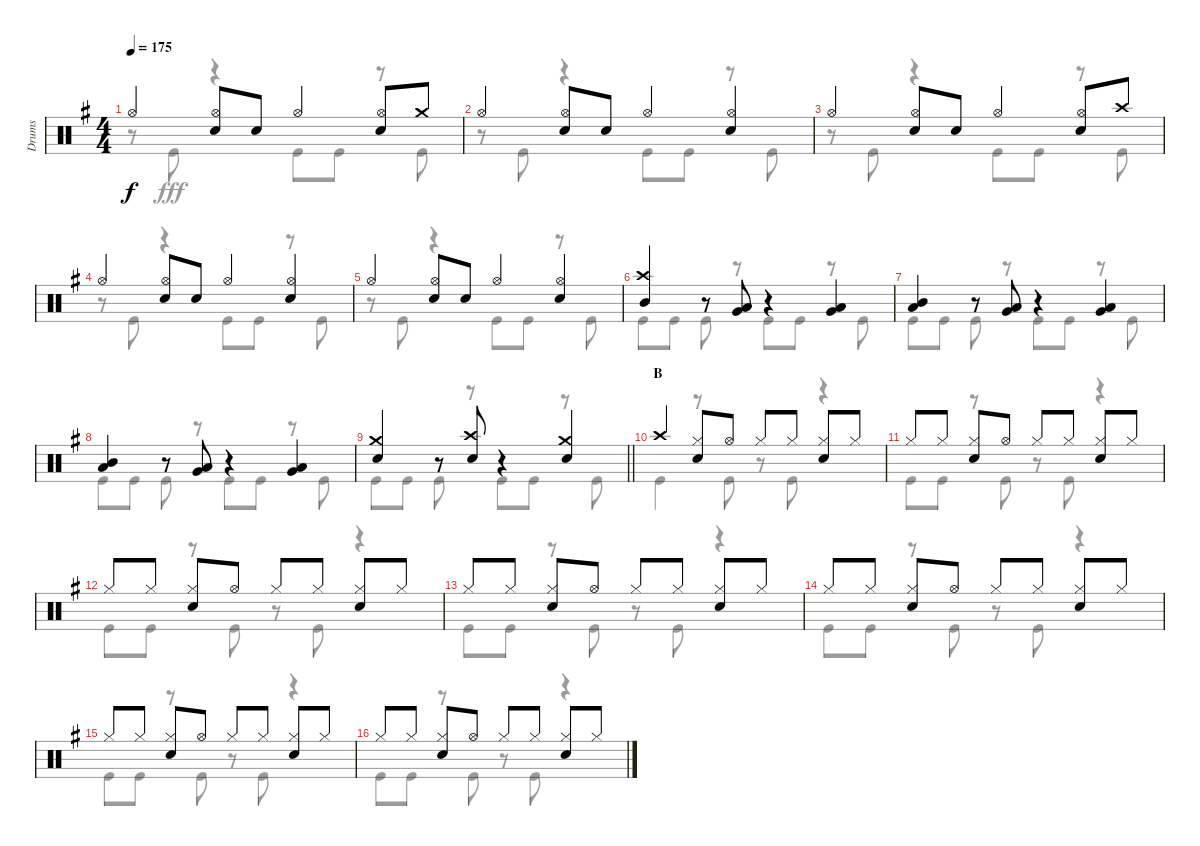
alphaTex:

\track ("Drums" "Drums") {instrument percussion}
\staff {score}
\articulation defaults
\voice
\ts (4 4)
\tempo 175
\clef neutral
\ks g "Hi-Hat (open)".4{dy f}
("Hi-Hat (open)" "Snare (hit) 2").8 "Snare (hit) 2".8 "Hi-Hat (open)".4 ("Hi-Hat (open)" "Snare (hit) 2").8 "Crash medium (hit)".8 |
"Hi-Hat (open)".4 ("Hi-Hat (open)" "Snare (hit) 2").8 "Snare (hit) 2".8 "Hi-Hat (open)".4 ("Hi-Hat (open)" "Snare (hit) 2").4 |
"Hi-Hat (open)".4 ("Hi-Hat (open)" "Snare (hit) 2").8 "Snare (hit) 2".8 "Hi-Hat (open)".4 ("Hi-Hat (open)" "Snare (hit) 2").8 "Crash high (hit)".8 |
"Hi-Hat (open)".4 ("Hi-Hat (open)" "Snare (hit) 2").8 "Snare (hit) 2".8 "Hi-Hat (open)".4 ("Hi-Hat (open)" "Snare (hit) 2").4 |
"Hi-Hat (open)".4 ("Hi-Hat (open)" "Snare (hit) 2").8 "Snare (hit) 2".8 "Hi-Hat (open)".4 ("Hi-Hat (open)" "Snare (hit) 2").4 |
("Crash high (hit)" "Mid Tom (hit)").4 r.8 ("Low Tom (hit)" "Very Low Tom (hit)").8 r.4 ("Low Tom (hit)" "Very Low Tom (hit)").4 |
("Mid Tom (hit)" "Low Tom (hit)").4 r.8 ("Low Tom (hit)" "Very Low Tom (hit)").8 r.4 ("Low Tom (hit)" "Very Low Tom (hit)").4 |
("Mid Tom (hit)" "Low Tom (hit)").4 r.8 ("Low Tom (hit)" "Very Low Tom (hit)").8 r.4 ("Low Tom (hit)" "Very Low Tom (hit)").4 |
\barLineRight lightlight
("Crash medium (hit)" "Snare (hit) 2").4 r.8 ("Crash high (hit)" "Snare (hit) 2").8 r.4 ("Crash medium (hit)" "Snare (hit) 2").4 |
\section ("" "B")
"Crash high (hit)".4 ("Hi-Hat (closed)" "Snare (hit) 2").8 "Hi-Hat (open)".8 "Hi-Hat (closed)".8 "Hi-Hat (closed)".8 ("Hi-Hat (closed)" "Snare (hit) 2").8 "Hi-Hat (closed)".8 |
"Hi-Hat (closed)".8 "Hi-Hat (closed)".8 ("Hi-Hat (closed)" "Snare (hit) 2").8 "Hi-Hat (open)".8 "Hi-Hat (closed)".8 "Hi-Hat (closed)".8 ("Hi-Hat (closed)" "Snare (hit) 2").8 "Hi-Hat (closed)".8 |
"Hi-Hat (closed)".8 "Hi-Hat (closed)".8 ("Hi-Hat (closed)" "Snare (hit) 2").8 "Hi-Hat (open)".8 "Hi-Hat (closed)".8 "Hi-Hat (closed)".8 ("Hi-Hat (closed)" "Snare (hit) 2").8 "Hi-Hat (closed)".8 |
"Hi-Hat (closed)".8 "Hi-Hat (closed)".8 ("Hi-Hat (closed)" "Snare (hit) 2").8 "Hi-Hat (open)".8 "Hi-Hat (closed)".8 "Hi-Hat (closed)".8 ("Hi-Hat (closed)" "Snare (hit) 2").8 "Hi-Hat (closed)".8 |
"Hi-Hat (closed)".8 "Hi-Hat (closed)".8 ("Hi-Hat (closed)" "Snare (hit) 2").8 "Hi-Hat (open)".8 "Hi-Hat (closed)".8 "Hi-Hat (closed)".8 ("Hi-Hat (closed)" "Snare (hit) 2").8 "Hi-Hat (closed)".8 |
"Hi-Hat (closed)".8 "Hi-Hat (closed)".8 ("Hi-Hat (closed)" "Snare (hit) 2").8 "Hi-Hat (open)".8 "Hi-Hat (closed)".8 "Hi-Hat (closed)".8 ("Hi-Hat (closed)" "Snare (hit) 2").8 "Hi-Hat (closed)".8 |
"Hi-Hat (closed)".8 "Hi-Hat (closed)".8 ("Hi-Hat (closed)" "Snare (hit) 2").8 "Hi-Hat (open)".8 "Hi-Hat (closed)".8 "Hi-Hat (closed)".8 ("Hi-Hat (closed)" "Snare (hit) 2").8 "Hi-Hat (closed)".8
\voice
\clef neutral
\ottava regular
\simile none
\ks g
r.8{dy fff} "Kick (hit)".8 r.4 "Kick (hit)".8 "Kick (hit)".8 r.8 "Kick (hit)".8 |
r.8 "Kick (hit)".8 r.4 "Kick (hit)".8 "Kick (hit)".8 r.8 "Kick (hit)".8 |
r.8 "Kick (hit)".8 r.4 "Kick (hit)".8 "Kick (hit)".8 r.8 "Kick (hit)".8 |
r.8 "Kick (hit)".8 r.4 "Kick (hit)".8 "Kick (hit)".8 r.8 "Kick (hit)".8 |
r.8 "Kick (hit)".8 r.4 "Kick (hit)".8 "Kick (hit)".8 r.8 "Kick (hit)".8 |
"Kick (hit)".8 "Kick (hit)".8 "Kick (hit)".8 r.8 "Kick (hit)".8 "Kick (hit)".8 r.8 "Kick (hit)".8 |
"Kick (hit)".8 "Kick (hit)".8 "Kick (hit)".8 r.8 "Kick (hit)".8 "Kick (hit)".8 r.8 "Kick (hit)".8 |
"Kick (hit)".8 "Kick (hit)".8 "Kick (hit)".8 r.8 "Kick (hit)".8 "Kick (hit)".8 r.8 "Kick (hit)".8 |
\barLineRight lightlight "Kick (hit)".8 "Kick (hit)".8 "Kick (hit)".8
r.8 "Kick (hit)".8 "Kick (hit)".8 r.8 "Kick (hit)".8 |
"Kick (hit)".4 r.8 "Kick (hit)".8 r.8 "Kick (hit)".8 r.4 |
"Kick (hit)".8 "Kick (hit)".8 r.8 "Kick (hit)".8 r.8 "Kick (hit)".8 r.4 |
"Kick (hit)".8 "Kick (hit)".8 r.8 "Kick (hit)".8 r.8 "Kick (hit)".8 r.4 |
"Kick (hit)".8 "Kick (hit)".8 r.8 "Kick (hit)".8 r.8 "Kick (hit)".8 r.4 |
"Kick (hit)".8 "Kick (hit)".8 r.8 "Kick (hit)".8 r.8 "Kick (hit)".8 r.4 |
"Kick (hit)".8 "Kick (hit)".8 r.8 "Kick (hit)".8 r.8 "Kick (hit)".8 r.4 |
"Kick (hit)".8 "Kick (hit)".8 r.8 "Kick (hit)".8 r.8 "Kick (hit)".8 r.4
